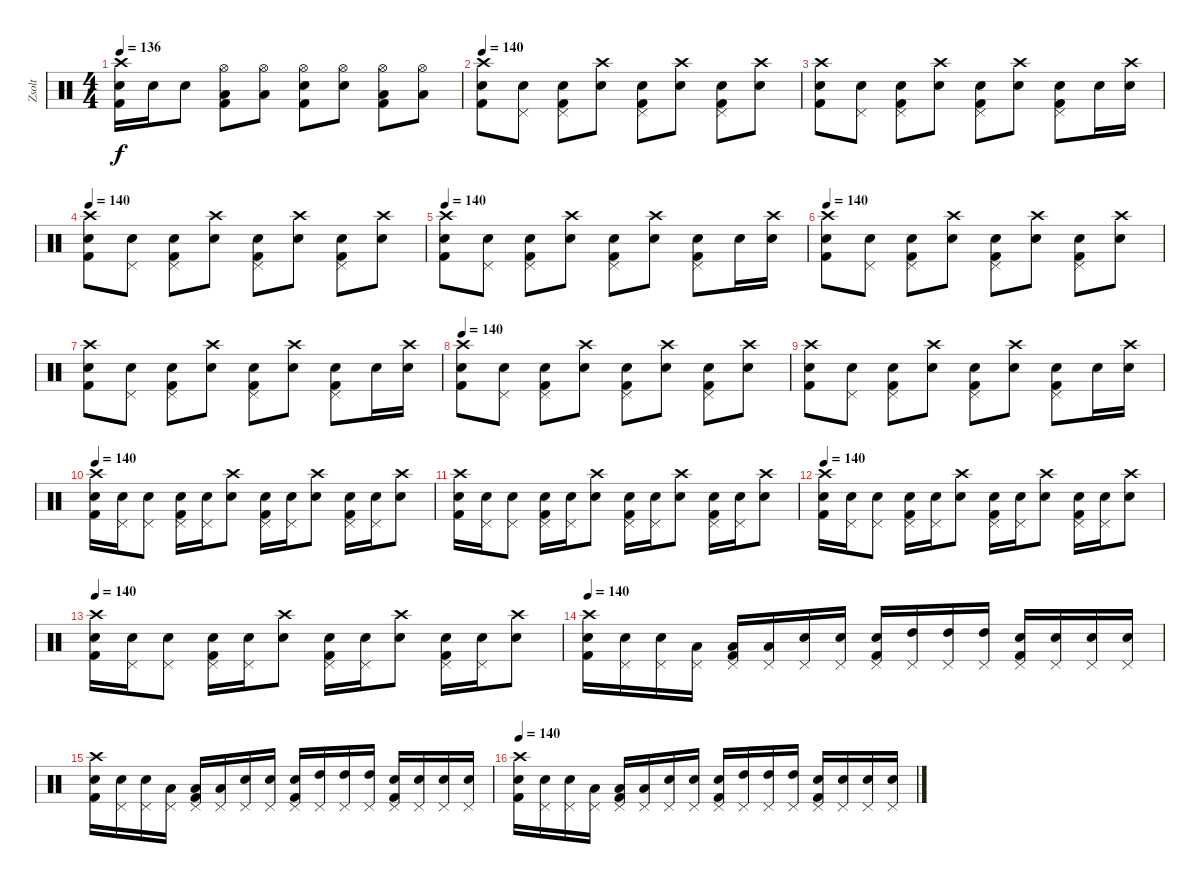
\track ("Zsolt" "Zsolt") {instrument percussion}
\staff {score}
\articulation defaults
\ts (4 4)
\tempo 136
\clef neutral
\ks c
("Crash high (hit)" "Snare (hit) 2" "Kick (hit) 2").16{dy f} "Snare (hit) 2".16 "Snare (hit) 2".8 ("Hi-Hat (open)" "Low Tom (hit)" "Kick (hit) 2").8 ("Hi-Hat (open)" "Low Tom (hit)").8 ("Hi-Hat (open)" "Snare (hit) 2" "Kick (hit) 2").8 ("Hi-Hat (open)" "Snare (hit) 2").8 ("Hi-Hat (open)" "Low Tom (hit)" "Kick (hit) 2").8 ("Hi-Hat (open)" "Low Tom (hit)").8 |
\tempo 140
("Crash high (hit)" "Snare (hit) 2" "Kick (hit) 2").8 ("Pedal Hi-Hat (hit)" "Snare (hit) 2").8 ("Pedal Hi-Hat (hit)" "Snare (hit) 2" "Kick (hit) 2").8 ("Crash high (hit)" "Snare (hit) 2").8 ("Pedal Hi-Hat (hit)" "Snare (hit) 2" "Kick (hit) 2").8 ("Crash high (hit)" "Snare (hit) 2").8 ("Pedal Hi-Hat (hit)" "Snare (hit) 2" "Kick (hit) 2").8 ("Crash high (hit)" "Snare (hit) 2").8 |
("Crash high (hit)" "Snare (hit) 2" "Kick (hit) 2").8 ("Pedal Hi-Hat (hit)" "Snare (hit) 2").8 ("Pedal Hi-Hat (hit)" "Snare (hit) 2" "Kick (hit) 2").8 ("Crash high (hit)" "Snare (hit) 2").8 ("Pedal Hi-Hat (hit)" "Snare (hit) 2" "Kick (hit) 2").8 ("Crash high (hit)" "Snare (hit) 2").8 ("Pedal Hi-Hat (hit)" "Snare (hit) 2" "Kick (hit) 2").8 "Snare (hit) 2".16 ("Crash high (hit)" "Snare (hit) 2").16 |
\tempo 140
("Crash high (hit)" "Snare (hit) 2" "Kick (hit) 2").8 ("Pedal Hi-Hat (hit)" "Snare (hit) 2").8 ("Pedal Hi-Hat (hit)" "Snare (hit) 2" "Kick (hit) 2").8 ("Crash high (hit)" "Snare (hit) 2").8 ("Pedal Hi-Hat (hit)" "Snare (hit) 2" "Kick (hit) 2").8 ("Crash high (hit)" "Snare (hit) 2").8 ("Pedal Hi-Hat (hit)" "Snare (hit) 2" "Kick (hit) 2").8 ("Crash high (hit)" "Snare (hit) 2").8 |
\tempo 140
("Crash high (hit)" "Snare (hit) 2" "Kick (hit) 2").8 ("Pedal Hi-Hat (hit)" "Snare (hit) 2").8 ("Pedal Hi-Hat (hit)" "Snare (hit) 2" "Kick (hit) 2").8 ("Crash high (hit)" "Snare (hit) 2").8 ("Pedal Hi-Hat (hit)" "Snare (hit) 2" "Kick (hit) 2").8 ("Crash high (hit)" "Snare (hit) 2").8 ("Pedal Hi-Hat (hit)" "Snare (hit) 2" "Kick (hit) 2").8 "Snare (hit) 2".16 ("Crash high (hit)" "Snare (hit) 2").16 |
\tempo 140
("Crash high (hit)" "Snare (hit) 2" "Kick (hit) 2").8 ("Pedal Hi-Hat (hit)" "Snare (hit) 2").8 ("Pedal Hi-Hat (hit)" "Snare (hit) 2" "Kick (hit) 2").8 ("Crash high (hit)" "Snare (hit) 2").8 ("Pedal Hi-Hat (hit)" "Snare (hit) 2" "Kick (hit) 2").8 ("Crash high (hit)" "Snare (hit) 2").8 ("Pedal Hi-Hat (hit)" "Snare (hit) 2" "Kick (hit) 2").8 ("Crash high (hit)" "Snare (hit) 2").8 |
("Crash high (hit)" "Snare (hit) 2" "Kick (hit) 2").8 ("Pedal Hi-Hat (hit)" "Snare (hit) 2").8 ("Pedal Hi-Hat (hit)" "Snare (hit) 2" "Kick (hit) 2").8 ("Crash high (hit)" "Snare (hit) 2").8 ("Pedal Hi-Hat (hit)" "Snare (hit) 2" "Kick (hit) 2").8 ("Crash high (hit)" "Snare (hit) 2").8 ("Pedal Hi-Hat (hit)" "Snare (hit) 2" "Kick (hit) 2").8 "Snare (hit) 2".16 ("Crash high (hit)" "Snare (hit) 2").16 |
\tempo 140
("Crash high (hit)" "Snare (hit) 2" "Kick (hit) 2").8 ("Pedal Hi-Hat (hit)" "Snare (hit) 2").8 ("Pedal Hi-Hat (hit)" "Snare (hit) 2" "Kick (hit) 2").8 ("Crash high (hit)" "Snare (hit) 2").8 ("Pedal Hi-Hat (hit)" "Snare (hit) 2" "Kick (hit) 2").8 ("Crash high (hit)" "Snare (hit) 2").8 ("Pedal Hi-Hat (hit)" "Snare (hit) 2" "Kick (hit) 2").8 ("Crash high (hit)" "Snare (hit) 2").8 |
("Crash high (hit)" "Snare (hit) 2" "Kick (hit) 2").8 ("Pedal Hi-Hat (hit)" "Snare (hit) 2").8 ("Pedal Hi-Hat (hit)" "Snare (hit) 2" "Kick (hit) 2").8 ("Crash high (hit)" "Snare (hit) 2").8 ("Pedal Hi-Hat (hit)" "Snare (hit) 2" "Kick (hit) 2").8 ("Crash high (hit)" "Snare (hit) 2").8 ("Pedal Hi-Hat (hit)" "Snare (hit) 2" "Kick (hit) 2").8 "Snare (hit) 2".16 ("Crash high (hit)" "Snare (hit) 2").16 |
\tempo 140
("Crash high (hit)" "Snare (hit) 2" "Kick (hit) 2").16 ("Pedal Hi-Hat (hit)" "Snare (hit) 2").16 ("Pedal Hi-Hat (hit)" "Snare (hit) 2").8 ("Pedal Hi-Hat (hit)" "Snare (hit) 2" "Kick (hit) 2").16 ("Pedal Hi-Hat (hit)" "Snare (hit) 2").16 ("Crash high (hit)" "Snare (hit) 2").8 ("Pedal Hi-Hat (hit)" "Snare (hit) 2" "Kick (hit) 2").16 ("Pedal Hi-Hat (hit)" "Snare (hit) 2").16 ("Crash high (hit)" "Snare (hit) 2").8 ("Pedal Hi-Hat (hit)" "Snare (hit) 2" "Kick (hit) 2").16 ("Pedal Hi-Hat (hit)" "Snare (hit) 2").16 ("Crash high (hit)" "Snare (hit) 2").8 |
("Crash high (hit)" "Snare (hit) 2" "Kick (hit) 2").16 ("Pedal Hi-Hat (hit)" "Snare (hit) 2").16 ("Pedal Hi-Hat (hit)" "Snare (hit) 2").8 ("Pedal Hi-Hat (hit)" "Snare (hit) 2" "Kick (hit) 2").16 ("Pedal Hi-Hat (hit)" "Snare (hit) 2").16 ("Crash high (hit)" "Snare (hit) 2").8 ("Pedal Hi-Hat (hit)" "Snare (hit) 2" "Kick (hit) 2").16 ("Pedal Hi-Hat (hit)" "Snare (hit) 2").16 ("Crash high (hit)" "Snare (hit) 2").8 ("Pedal Hi-Hat (hit)" "Snare (hit) 2" "Kick (hit) 2").16 ("Pedal Hi-Hat (hit)" "Snare (hit) 2").16 ("Crash high (hit)" "Snare (hit) 2").8 |
\tempo 140
("Crash high (hit)" "Snare (hit) 2" "Kick (hit) 2").16 ("Pedal Hi-Hat (hit)" "Snare (hit) 2").16 ("Pedal Hi-Hat (hit)" "Snare (hit) 2").8 ("Pedal Hi-Hat (hit)" "Snare (hit) 2" "Kick (hit) 2").16 ("Pedal Hi-Hat (hit)" "Snare (hit) 2").16 ("Crash high (hit)" "Snare (hit) 2").8 ("Pedal Hi-Hat (hit)" "Snare (hit) 2" "Kick (hit) 2").16 ("Pedal Hi-Hat (hit)" "Snare (hit) 2").16 ("Crash high (hit)" "Snare (hit) 2").8 ("Pedal Hi-Hat (hit)" "Snare (hit) 2" "Kick (hit) 2").16 ("Pedal Hi-Hat (hit)" "Snare (hit) 2").16 ("Crash high (hit)" "Snare (hit) 2").8 |
\tempo 140
("Crash high (hit)" "Snare (hit) 2" "Kick (hit) 2").16 ("Pedal Hi-Hat (hit)" "Snare (hit) 2").16 ("Pedal Hi-Hat (hit)" "Snare (hit) 2").8 ("Pedal Hi-Hat (hit)" "Snare (hit) 2" "Kick (hit) 2").16 ("Pedal Hi-Hat (hit)" "Snare (hit) 2").16 ("Crash high (hit)" "Snare (hit) 2").8 ("Pedal Hi-Hat (hit)" "Snare (hit) 2" "Kick (hit) 2").16 ("Pedal Hi-Hat (hit)" "Snare (hit) 2").16 ("Crash high (hit)" "Snare (hit) 2").8 ("Pedal Hi-Hat (hit)" "Snare (hit) 2" "Kick (hit) 2").16 ("Pedal Hi-Hat (hit)" "Snare (hit) 2").16 ("Crash high (hit)" "Snare (hit) 2").8 |
\tempo 140
("Crash high (hit)" "Snare (hit) 2" "Kick (hit) 2").16 ("Pedal Hi-Hat (hit)" "Snare (hit) 2").16 ("Pedal Hi-Hat (hit)" "Snare (hit) 2").16 ("Pedal Hi-Hat (hit)" "Low Tom (hit)").16 ("Pedal Hi-Hat (hit)" "Low Tom (hit)" "Kick (hit) 2").16 ("Pedal Hi-Hat (hit)" "Low Tom (hit)").16 ("Pedal Hi-Hat (hit)" "Snare (hit) 2").16 ("Pedal Hi-Hat (hit)" "Snare (hit) 2").16 ("Pedal Hi-Hat (hit)" "Snare (hit) 2" "Kick (hit) 2").16 ("Pedal Hi-Hat (hit)" "High Tom (hit)").16 ("Pedal Hi-Hat (hit)" "High Tom (hit)").16 ("Pedal Hi-Hat (hit)" "High Tom (hit)").16 ("Pedal Hi-Hat (hit)" "Snare (hit) 2" "Kick (hit) 2").16 ("Pedal Hi-Hat (hit)" "Snare (hit) 2").16 ("Pedal Hi-Hat (hit)" "Snare (hit) 2").16 ("Pedal Hi-Hat (hit)" "Snare (hit) 2").16 |
("Crash high (hit)" "Snare (hit) 2" "Kick (hit) 2").16 ("Pedal Hi-Hat (hit)" "Snare (hit) 2").16 ("Pedal Hi-Hat (hit)" "Snare (hit) 2").16 ("Pedal Hi-Hat (hit)" "Low Tom (hit)").16 ("Pedal Hi-Hat (hit)" "Low Tom (hit)" "Kick (hit) 2").16 ("Pedal Hi-Hat (hit)" "Low Tom (hit)").16 ("Pedal Hi-Hat (hit)" "Snare (hit) 2").16 ("Pedal Hi-Hat (hit)" "Snare (hit) 2").16 ("Pedal Hi-Hat (hit)" "Snare (hit) 2" "Kick (hit) 2").16 ("Pedal Hi-Hat (hit)" "High Tom (hit)").16 ("Pedal Hi-Hat (hit)" "High Tom (hit)").16 ("Pedal Hi-Hat (hit)" "High Tom (hit)").16 ("Pedal Hi-Hat (hit)" "Snare (hit) 2" "Kick (hit) 2").16 ("Pedal Hi-Hat (hit)" "Snare (hit) 2").16 ("Pedal Hi-Hat (hit)" "Snare (hit) 2").16 ("Pedal Hi-Hat (hit)" "Snare (hit) 2").16 |
\tempo 140
("Crash high (hit)" "Snare (hit) 2" "Kick (hit) 2").16 ("Pedal Hi-Hat (hit)" "Snare (hit) 2").16 ("Pedal Hi-Hat (hit)" "Snare (hit) 2").16 ("Pedal Hi-Hat (hit)" "Low Tom (hit)").16 ("Pedal Hi-Hat (hit)" "Low Tom (hit)" "Kick (hit) 2").16 ("Pedal Hi-Hat (hit)" "Low Tom (hit)").16 ("Pedal Hi-Hat (hit)" "Snare (hit) 2").16 ("Pedal Hi-Hat (hit)" "Snare (hit) 2").16 ("Pedal Hi-Hat (hit)" "Snare (hit) 2" "Kick (hit) 2").16 ("Pedal Hi-Hat (hit)" "High Tom (hit)").16 ("Pedal Hi-Hat (hit)" "High Tom (hit)").16 ("Pedal Hi-Hat (hit)" "High Tom (hit)").16 ("Pedal Hi-Hat (hit)" "Snare (hit) 2" "Kick (hit) 2").16 ("Pedal Hi-Hat (hit)" "Snare (hit) 2").16 ("Pedal Hi-Hat (hit)" "Snare (hit) 2").16 ("Pedal Hi-Hat (hit)" "Snare (hit) 2").16
